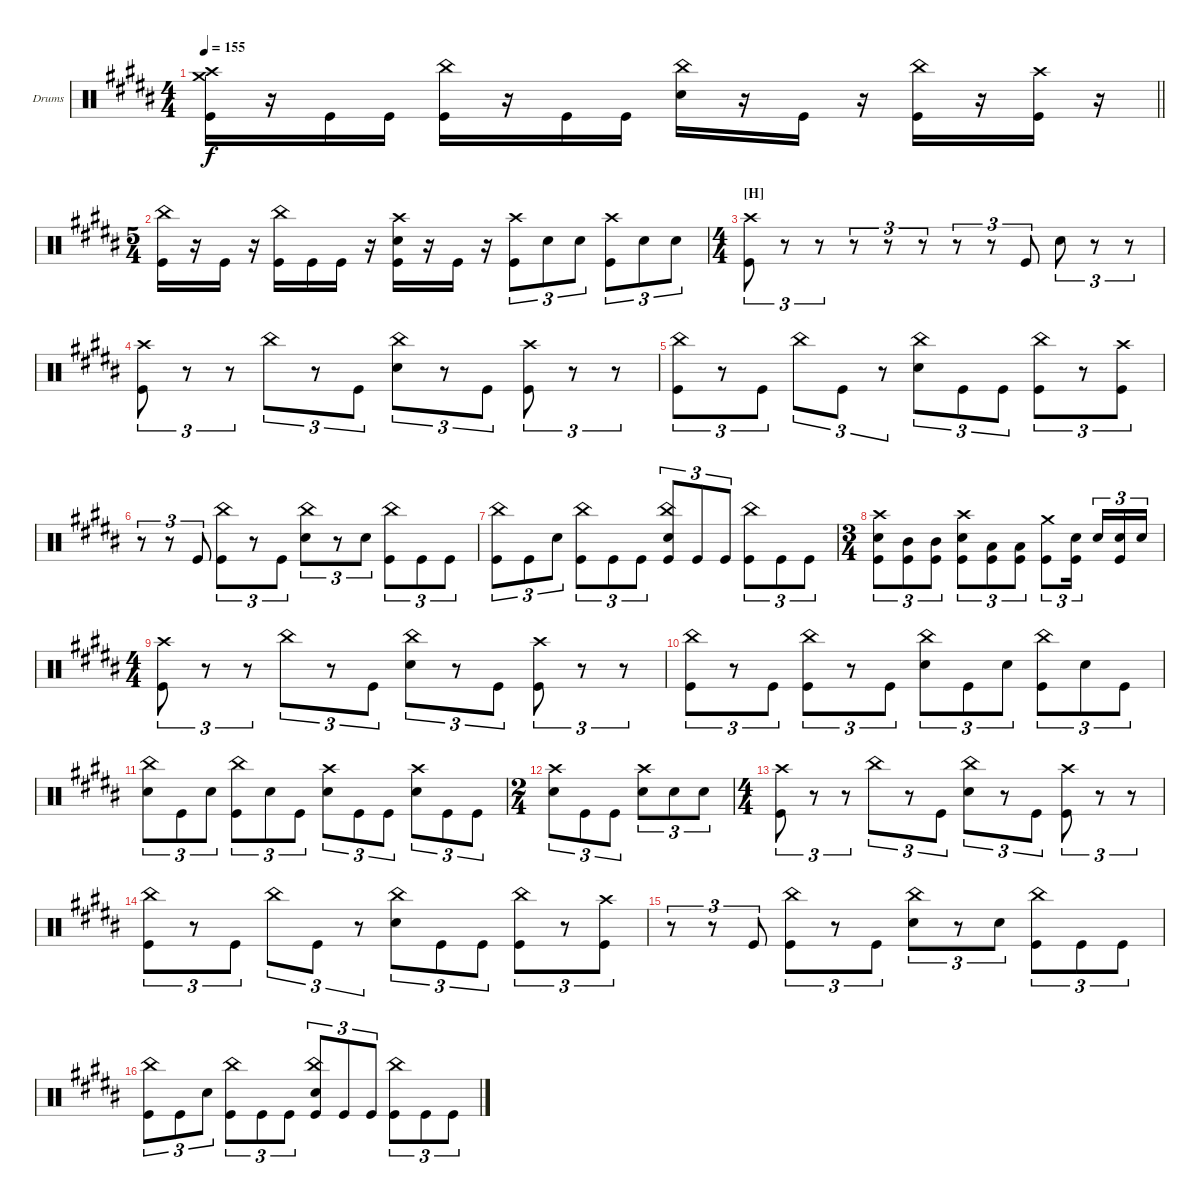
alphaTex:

\bracketExtendMode groupsimilarinstruments
\firstSystemTrackNameOrientation horizontal
\otherSystemsTrackNameOrientation horizontal
\track ("Drumkit" "Drums") {instrument percussion}
\staff {score}
\articulation defaults
\ts (4 4)
\tempo 155
\clef neutral
\barLineRight lightlight
\ks b
("Crash medium (hit)" "Crash high (hit)" "Kick (hit)").16{dy f} r.16 "Kick (hit)".16 "Kick (hit)".16 ("China (hit)" "Kick (hit)").16 r.16 "Kick (hit)".16 "Kick (hit)".16 ("China (hit)" "Snare (hit) 2").16 r.16 "Kick (hit)".16 r.16 ("China (hit)" "Kick (hit)").16 r.16 ("Crash high (hit)" "Kick (hit)").16 r.16 |
\ts (5 4)
("China (hit)" "Kick (hit)").16 r.16 "Kick (hit)".16 r.16 ("China (hit)" "Kick (hit)").16 "Kick (hit)".16 "Kick (hit)".16 r.16 ("Crash high (hit)" "Snare (hit) 2" "Kick (hit)").16 r.16 "Kick (hit)".16 r.16 ("Crash high (hit)" "Kick (hit)").8{tu (3 2)} "Snare (hit) 2".8{tu (3 2)} "Snare (hit) 2".8{tu (3 2)} ("Crash high (hit)" "Kick (hit)").8{tu (3 2)} "Snare (hit) 2".8{tu (3 2)} "Snare (hit) 2".8{tu (3 2)} |
\ts (4 4)
\section ("H" "")
("Crash high (hit)" "Kick (hit)").8{tu (3 2)} r.8{tu (3 2)} r.8{tu (3 2)} r.8{tu (3 2)} r.8{tu (3 2)} r.8{tu (3 2)} r.8{tu (3 2)} r.8{tu (3 2)} "Kick (hit)".8{tu (3 2)} "Snare (hit) 2".8{tu (3 2)} r.8{tu (3 2)} r.8{tu (3 2)} |
("Crash high (hit)" "Kick (hit)").8{tu (3 2)} r.8{tu (3 2)} r.8{tu (3 2)} "China (hit)".8{tu (3 2)} r.8{tu (3 2)} "Kick (hit)".8{tu (3 2)} ("China (hit)" "Snare (hit) 2").8{tu (3 2)} r.8{tu (3 2)} "Kick (hit)".8{tu (3 2)} ("Crash high (hit)" "Kick (hit)").8{tu (3 2)} r.8{tu (3 2)} r.8{tu (3 2)} |
("China (hit)" "Kick (hit)").8{tu (3 2)} r.8{tu (3 2)} "Kick (hit)".8{tu (3 2)} "China (hit)".8{tu (3 2)} "Kick (hit)".8{tu (3 2)} r.8{tu (3 2)} ("China (hit)" "Snare (hit) 2").8{tu (3 2)} "Kick (hit)".8{tu (3 2)} "Kick (hit)".8{tu (3 2)} ("China (hit)" "Kick (hit)").8{tu (3 2)} r.8{tu (3 2)} ("Crash high (hit)" "Kick (hit)").8{tu (3 2)} |
r.8{tu (3 2)} r.8{tu (3 2)} "Kick (hit)".8{tu (3 2)} ("China (hit)" "Kick (hit)").8{tu (3 2)} r.8{tu (3 2)} "Kick (hit)".8{tu (3 2)} ("China (hit)" "Snare (hit) 2").8{tu (3 2)} r.8{tu (3 2)} "Snare (hit) 2".8{tu (3 2)} ("China (hit)" "Kick (hit)").8{tu (3 2)} "Kick (hit)".8{tu (3 2)} "Kick (hit)".8{tu (3 2)} |
("China (hit)" "Kick (hit)").8{tu (3 2)} "Kick (hit)".8{tu (3 2)} "Snare (hit) 2".8{tu (3 2)} ("China (hit)" "Kick (hit)").8{tu (3 2)} "Kick (hit)".8{tu (3 2)} "Kick (hit)".8{tu (3 2)} ("China (hit)" "Snare (hit) 2" "Kick (hit)").8{tu (3 2)} "Kick (hit)".8{tu (3 2)} "Kick (hit)".8{tu (3 2)} ("China (hit)" "Kick (hit)").8{tu (3 2)} "Kick (hit)".8{tu (3 2)} "Kick (hit)".8{tu (3 2)} |
\ts (3 4)
("Crash high (hit)" "Snare (hit) 2" "Kick (hit)").8{tu (3 2)} ("Mid Tom (hit)" "Kick (hit)").8{tu (3 2)} ("Mid Tom (hit)" "Kick (hit)").8{tu (3 2)} ("Crash high (hit)" "Snare (hit) 2" "Kick (hit)").8{tu (3 2)} ("Low Tom (hit)" "Kick (hit)").8{tu (3 2)} ("Low Tom (hit)" "Kick (hit)").8{tu (3 2)} ("Crash medium (hit)" "Kick (hit)").8{tu (3 2)} ("Snare (hit) 2" "Kick (hit)").16{tu (3 2)} "Snare (hit) 2".16{tu (3 2)} ("Snare (hit) 2" "Kick (hit)").16{tu (3 2)} "Snare (hit) 2".16{tu (3 2)} |
\ts (4 4)
("Crash high (hit)" "Kick (hit)").8{tu (3 2)} r.8{tu (3 2)} r.8{tu (3 2)} "China (hit)".8{tu (3 2)} r.8{tu (3 2)} "Kick (hit)".8{tu (3 2)} ("China (hit)" "Snare (hit) 2").8{tu (3 2)} r.8{tu (3 2)} "Kick (hit)".8{tu (3 2)} ("Crash high (hit)" "Kick (hit)").8{tu (3 2)} r.8{tu (3 2)} r.8{tu (3 2)} |
("China (hit)" "Kick (hit)").8{tu (3 2)} r.8{tu (3 2)} "Kick (hit)".8{tu (3 2)} ("China (hit)" "Kick (hit)").8{tu (3 2)} r.8{tu (3 2)} "Kick (hit)".8{tu (3 2)} ("China (hit)" "Snare (hit) 2").8{tu (3 2)} "Kick (hit)".8{tu (3 2)} "Snare (hit) 2".8{tu (3 2)} ("China (hit)" "Kick (hit)").8{tu (3 2)} "Snare (hit) 2".8{tu (3 2)} "Kick (hit)".8{tu (3 2)} |
("China (hit)" "Snare (hit) 2").8{tu (3 2)} "Kick (hit)".8{tu (3 2)} "Snare (hit) 2".8{tu (3 2)} ("China (hit)" "Kick (hit)").8{tu (3 2)} "Snare (hit) 2".8{tu (3 2)} "Kick (hit)".8{tu (3 2)} ("Crash high (hit)" "Snare (hit) 2").8{tu (3 2)} "Kick (hit)".8{tu (3 2)} "Kick (hit)".8{tu (3 2)} ("Crash high (hit)" "Snare (hit) 2").8{tu (3 2)} "Kick (hit)".8{tu (3 2)} "Kick (hit)".8{tu (3 2)} |
\ts (2 4)
("Crash high (hit)" "Snare (hit) 2").8{tu (3 2)} "Kick (hit)".8{tu (3 2)} "Kick (hit)".8{tu (3 2)} ("Crash high (hit)" "Snare (hit) 2").8{tu (3 2)} "Snare (hit) 2".8{tu (3 2)} "Snare (hit) 2".8{tu (3 2)} |
\ts (4 4)
("Crash high (hit)" "Kick (hit)").8{tu (3 2)} r.8{tu (3 2)} r.8{tu (3 2)} "China (hit)".8{tu (3 2)} r.8{tu (3 2)} "Kick (hit)".8{tu (3 2)} ("China (hit)" "Snare (hit) 2").8{tu (3 2)} r.8{tu (3 2)} "Kick (hit)".8{tu (3 2)} ("Crash high (hit)" "Kick (hit)").8{tu (3 2)} r.8{tu (3 2)} r.8{tu (3 2)} |
("China (hit)" "Kick (hit)").8{tu (3 2)} r.8{tu (3 2)} "Kick (hit)".8{tu (3 2)} "China (hit)".8{tu (3 2)} "Kick (hit)".8{tu (3 2)} r.8{tu (3 2)} ("China (hit)" "Snare (hit) 2").8{tu (3 2)} "Kick (hit)".8{tu (3 2)} "Kick (hit)".8{tu (3 2)} ("China (hit)" "Kick (hit)").8{tu (3 2)} r.8{tu (3 2)} ("Crash high (hit)" "Kick (hit)").8{tu (3 2)} |
r.8{tu (3 2)} r.8{tu (3 2)} "Kick (hit)".8{tu (3 2)} ("China (hit)" "Kick (hit)").8{tu (3 2)} r.8{tu (3 2)} "Kick (hit)".8{tu (3 2)} ("China (hit)" "Snare (hit) 2").8{tu (3 2)} r.8{tu (3 2)} "Snare (hit) 2".8{tu (3 2)} ("China (hit)" "Kick (hit)").8{tu (3 2)} "Kick (hit)".8{tu (3 2)} "Kick (hit)".8{tu (3 2)} |
("China (hit)" "Kick (hit)").8{tu (3 2)} "Kick (hit)".8{tu (3 2)} "Snare (hit) 2".8{tu (3 2)} ("China (hit)" "Kick (hit)").8{tu (3 2)} "Kick (hit)".8{tu (3 2)} "Kick (hit)".8{tu (3 2)} ("China (hit)" "Snare (hit) 2" "Kick (hit)").8{tu (3 2)} "Kick (hit)".8{tu (3 2)} "Kick (hit)".8{tu (3 2)} ("China (hit)" "Kick (hit)").8{tu (3 2)} "Kick (hit)".8{tu (3 2)} "Kick (hit)".8{tu (3 2)}
